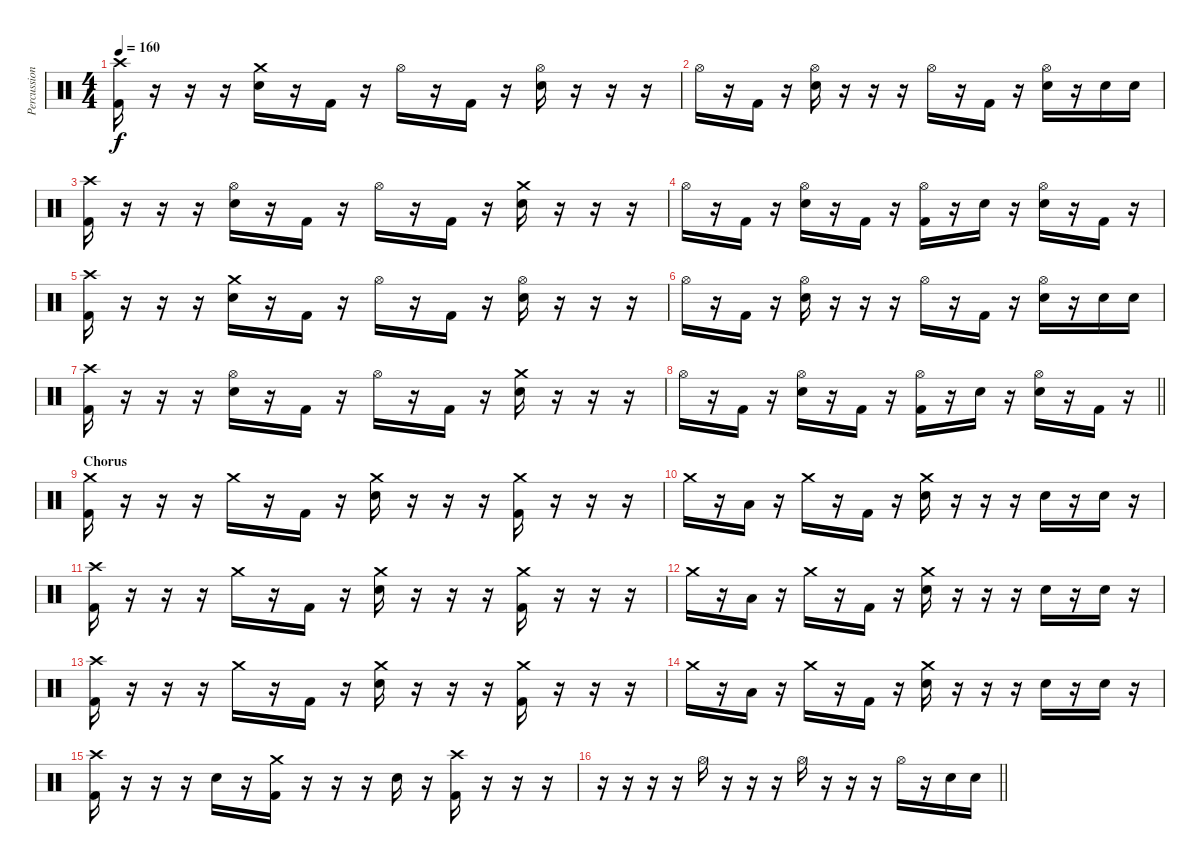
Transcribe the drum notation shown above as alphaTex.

\track ("Percussion" "Percussion") {instrument percussion}
\staff {score}
\articulation defaults
\ts (4 4)
\tempo 160
\clef neutral
\ks c
("Crash high (hit)" "Kick (hit) 2").16{dy f} r.16 r.16 r.16 ("Crash medium (hit)" "Snare (hit) 2").16 r.16 "Kick (hit) 2".16 r.16 "Hi-Hat (open)".16 r.16 "Kick (hit) 2".16 r.16 ("Hi-Hat (open)" "Snare (hit) 2").16 r.16 r.16 r.16 |
"Hi-Hat (open)".16 r.16 "Kick (hit) 2".16 r.16 ("Hi-Hat (open)" "Snare (hit) 2").16 r.16 r.16 r.16 "Hi-Hat (open)".16 r.16 "Kick (hit) 2".16 r.16 ("Hi-Hat (open)" "Snare (hit) 2").16 r.16 "Snare (hit) 2".16 "Snare (hit) 2".16 |
("Crash high (hit)" "Kick (hit) 2").16 r.16 r.16 r.16 ("Hi-Hat (open)" "Snare (hit) 2").16 r.16 "Kick (hit) 2".16 r.16 "Hi-Hat (open)".16 r.16 "Kick (hit) 2".16 r.16 ("Crash medium (hit)" "Snare (hit) 2").16 r.16 r.16 r.16 |
"Hi-Hat (open)".16 r.16 "Kick (hit) 2".16 r.16 ("Hi-Hat (open)" "Snare (hit) 2").16 r.16 "Kick (hit) 2".16 r.16 ("Hi-Hat (open)" "Kick (hit) 2").16 r.16 "Snare (hit) 2".16 r.16 ("Hi-Hat (open)" "Snare (hit) 2").16 r.16 "Kick (hit) 2".16 r.16 |
("Crash high (hit)" "Kick (hit) 2").16 r.16 r.16 r.16 ("Crash medium (hit)" "Snare (hit) 2").16 r.16 "Kick (hit) 2".16 r.16 "Hi-Hat (open)".16 r.16 "Kick (hit) 2".16 r.16 ("Hi-Hat (open)" "Snare (hit) 2").16 r.16 r.16 r.16 |
"Hi-Hat (open)".16 r.16 "Kick (hit) 2".16 r.16 ("Hi-Hat (open)" "Snare (hit) 2").16 r.16 r.16 r.16 "Hi-Hat (open)".16 r.16 "Kick (hit) 2".16 r.16 ("Hi-Hat (open)" "Snare (hit) 2").16 r.16 "Snare (hit) 2".16 "Snare (hit) 2".16 |
("Crash high (hit)" "Kick (hit) 2").16 r.16 r.16 r.16 ("Hi-Hat (open)" "Snare (hit) 2").16 r.16 "Kick (hit) 2".16 r.16 "Hi-Hat (open)".16 r.16 "Kick (hit) 2".16 r.16 ("Crash medium (hit)" "Snare (hit) 2").16 r.16 r.16 r.16 |
\barLineRight lightlight "Hi-Hat (open)".16
r.16 "Kick (hit) 2".16 r.16 ("Hi-Hat (open)" "Snare (hit) 2").16 r.16 "Kick (hit) 2".16 r.16 ("Hi-Hat (open)" "Kick (hit) 2").16 r.16 "Snare (hit) 2".16 r.16 ("Hi-Hat (open)" "Snare (hit) 2").16 r.16 "Kick (hit) 2".16 r.16 |
\section ("" "Chorus")
("Crash medium (hit)" "Kick (hit) 2").16 r.16 r.16 r.16 "Crash medium (hit)".16 r.16 "Kick (hit) 2".16 r.16 ("Crash medium (hit)" "Snare (hit) 2").16 r.16 r.16 r.16 ("Crash medium (hit)" "Kick (hit) 2").16 r.16 r.16 r.16 |
"Crash medium (hit)".16 r.16 "Low Tom (hit)".16 r.16 "Crash medium (hit)".16 r.16 "Kick (hit) 2".16 r.16 ("Crash medium (hit)" "Snare (hit) 2").16 r.16 r.16 r.16 "Snare (hit) 2".16 r.16 "Snare (hit) 2".16 r.16 |
("Crash high (hit)" "Kick (hit) 2").16 r.16 r.16 r.16 "Crash medium (hit)".16 r.16 "Kick (hit) 2".16 r.16 ("Crash medium (hit)" "Snare (hit) 2").16 r.16 r.16 r.16 ("Crash medium (hit)" "Kick (hit) 2").16 r.16 r.16 r.16 |
"Crash medium (hit)".16 r.16 "Low Tom (hit)".16 r.16 "Crash medium (hit)".16 r.16 "Kick (hit) 2".16 r.16 ("Crash medium (hit)" "Snare (hit) 2").16 r.16 r.16 r.16 "Snare (hit) 2".16 r.16 "Snare (hit) 2".16 r.16 |
("Crash high (hit)" "Kick (hit) 2").16 r.16 r.16 r.16 "Crash medium (hit)".16 r.16 "Kick (hit) 2".16 r.16 ("Crash medium (hit)" "Snare (hit) 2").16 r.16 r.16 r.16 ("Crash medium (hit)" "Kick (hit) 2").16 r.16 r.16 r.16 |
"Crash medium (hit)".16 r.16 "Low Tom (hit)".16 r.16 "Crash medium (hit)".16 r.16 "Kick (hit) 2".16 r.16 ("Crash medium (hit)" "Snare (hit) 2").16 r.16 r.16 r.16 "Snare (hit) 2".16 r.16 "Snare (hit) 2".16 r.16 |
("Crash high (hit)" "Kick (hit) 2").16 r.16 r.16 r.16 "Snare (hit) 2".16 r.16 ("Crash medium (hit)" "Kick (hit) 2").16 r.16 r.16 r.16 "Snare (hit) 2".16 r.16 ("Crash high (hit)" "Kick (hit) 2").16 r.16 r.16 r.16 |
\barLineRight lightlight
r.16 r.16 r.16 r.16 "Hi-Hat (open)".16 r.16 r.16 r.16 "Hi-Hat (open)".16 r.16 r.16 r.16 "Hi-Hat (open)".16 r.16 "Snare (hit) 2".16 "Snare (hit) 2".16
